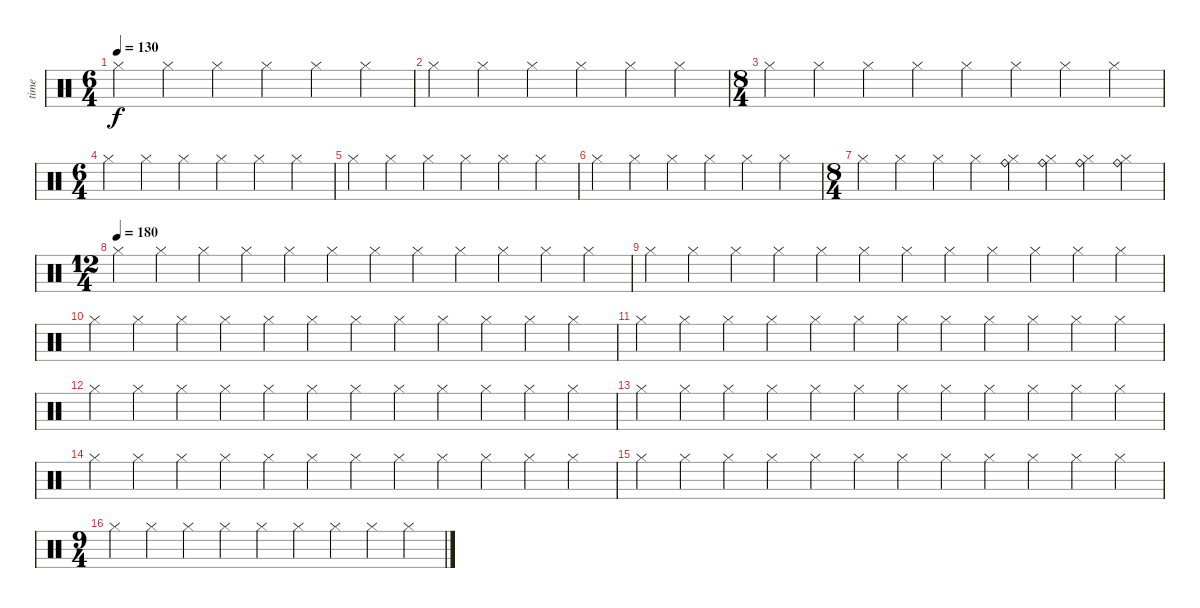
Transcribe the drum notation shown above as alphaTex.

\track ("time" "time") {instrument percussion}
\staff {score}
\articulation defaults
\ts (6 4)
\tempo 130
\clef neutral
\ks c "Hi-Hat (closed)".4{dy f} "Hi-Hat (closed)".4 "Hi-Hat (closed)".4 "Hi-Hat (closed)".4 "Hi-Hat (closed)".4 "Hi-Hat (closed)".4
|
"Hi-Hat (closed)".4 "Hi-Hat (closed)".4 "Hi-Hat (closed)".4 "Hi-Hat (closed)".4 "Hi-Hat (closed)".4 "Hi-Hat (closed)".4 |
\ts (8 4)
"Hi-Hat (closed)".4 "Hi-Hat (closed)".4 "Hi-Hat (closed)".4 "Hi-Hat (closed)".4 "Hi-Hat (closed)".4 "Hi-Hat (closed)".4 "Hi-Hat (closed)".4 "Hi-Hat (closed)".4 |
\ts (6 4)
"Hi-Hat (closed)".4 "Hi-Hat (closed)".4 "Hi-Hat (closed)".4 "Hi-Hat (closed)".4 "Hi-Hat (closed)".4 "Hi-Hat (closed)".4 |
"Hi-Hat (closed)".4 "Hi-Hat (closed)".4 "Hi-Hat (closed)".4 "Hi-Hat (closed)".4 "Hi-Hat (closed)".4 "Hi-Hat (closed)".4 |
"Hi-Hat (closed)".4 "Hi-Hat (closed)".4 "Hi-Hat (closed)".4 "Hi-Hat (closed)".4 "Hi-Hat (closed)".4 "Hi-Hat (closed)".4 |
\ts (8 4)
"Hi-Hat (closed)".4 "Hi-Hat (closed)".4 "Hi-Hat (closed)".4 "Hi-Hat (closed)".4 ("Hi-Hat (closed)" "Ride (bell)").4 ("Hi-Hat (closed)" "Ride (bell)").4 ("Hi-Hat (closed)" "Ride (bell)").4 ("Hi-Hat (closed)" "Ride (bell)").4 |
\ts (12 4)
\tempo (180)
"Hi-Hat (closed)".4 "Hi-Hat (closed)".4 "Hi-Hat (closed)".4 "Hi-Hat (closed)".4 "Hi-Hat (closed)".4 "Hi-Hat (closed)".4 "Hi-Hat (closed)".4 "Hi-Hat (closed)".4 "Hi-Hat (closed)".4 "Hi-Hat (closed)".4 "Hi-Hat (closed)".4 "Hi-Hat (closed)".4 |
"Hi-Hat (closed)".4 "Hi-Hat (closed)".4 "Hi-Hat (closed)".4 "Hi-Hat (closed)".4 "Hi-Hat (closed)".4 "Hi-Hat (closed)".4 "Hi-Hat (closed)".4 "Hi-Hat (closed)".4 "Hi-Hat (closed)".4 "Hi-Hat (closed)".4 "Hi-Hat (closed)".4 "Hi-Hat (closed)".4 |
"Hi-Hat (closed)".4 "Hi-Hat (closed)".4 "Hi-Hat (closed)".4 "Hi-Hat (closed)".4 "Hi-Hat (closed)".4 "Hi-Hat (closed)".4 "Hi-Hat (closed)".4 "Hi-Hat (closed)".4 "Hi-Hat (closed)".4 "Hi-Hat (closed)".4 "Hi-Hat (closed)".4 "Hi-Hat (closed)".4 |
"Hi-Hat (closed)".4 "Hi-Hat (closed)".4 "Hi-Hat (closed)".4 "Hi-Hat (closed)".4 "Hi-Hat (closed)".4 "Hi-Hat (closed)".4 "Hi-Hat (closed)".4 "Hi-Hat (closed)".4 "Hi-Hat (closed)".4 "Hi-Hat (closed)".4 "Hi-Hat (closed)".4 "Hi-Hat (closed)".4 |
"Hi-Hat (closed)".4 "Hi-Hat (closed)".4 "Hi-Hat (closed)".4 "Hi-Hat (closed)".4 "Hi-Hat (closed)".4 "Hi-Hat (closed)".4 "Hi-Hat (closed)".4 "Hi-Hat (closed)".4 "Hi-Hat (closed)".4 "Hi-Hat (closed)".4 "Hi-Hat (closed)".4 "Hi-Hat (closed)".4 |
"Hi-Hat (closed)".4 "Hi-Hat (closed)".4 "Hi-Hat (closed)".4 "Hi-Hat (closed)".4 "Hi-Hat (closed)".4 "Hi-Hat (closed)".4 "Hi-Hat (closed)".4 "Hi-Hat (closed)".4 "Hi-Hat (closed)".4 "Hi-Hat (closed)".4 "Hi-Hat (closed)".4 "Hi-Hat (closed)".4 |
"Hi-Hat (closed)".4 "Hi-Hat (closed)".4 "Hi-Hat (closed)".4 "Hi-Hat (closed)".4 "Hi-Hat (closed)".4 "Hi-Hat (closed)".4 "Hi-Hat (closed)".4 "Hi-Hat (closed)".4 "Hi-Hat (closed)".4 "Hi-Hat (closed)".4 "Hi-Hat (closed)".4 "Hi-Hat (closed)".4 |
"Hi-Hat (closed)".4 "Hi-Hat (closed)".4 "Hi-Hat (closed)".4 "Hi-Hat (closed)".4 "Hi-Hat (closed)".4 "Hi-Hat (closed)".4 "Hi-Hat (closed)".4 "Hi-Hat (closed)".4 "Hi-Hat (closed)".4 "Hi-Hat (closed)".4 "Hi-Hat (closed)".4 "Hi-Hat (closed)".4 |
\ts (9 4)
"Hi-Hat (closed)".4 "Hi-Hat (closed)".4 "Hi-Hat (closed)".4 "Hi-Hat (closed)".4 "Hi-Hat (closed)".4 "Hi-Hat (closed)".4 "Hi-Hat (closed)".4 "Hi-Hat (closed)".4 "Hi-Hat (closed)".4
